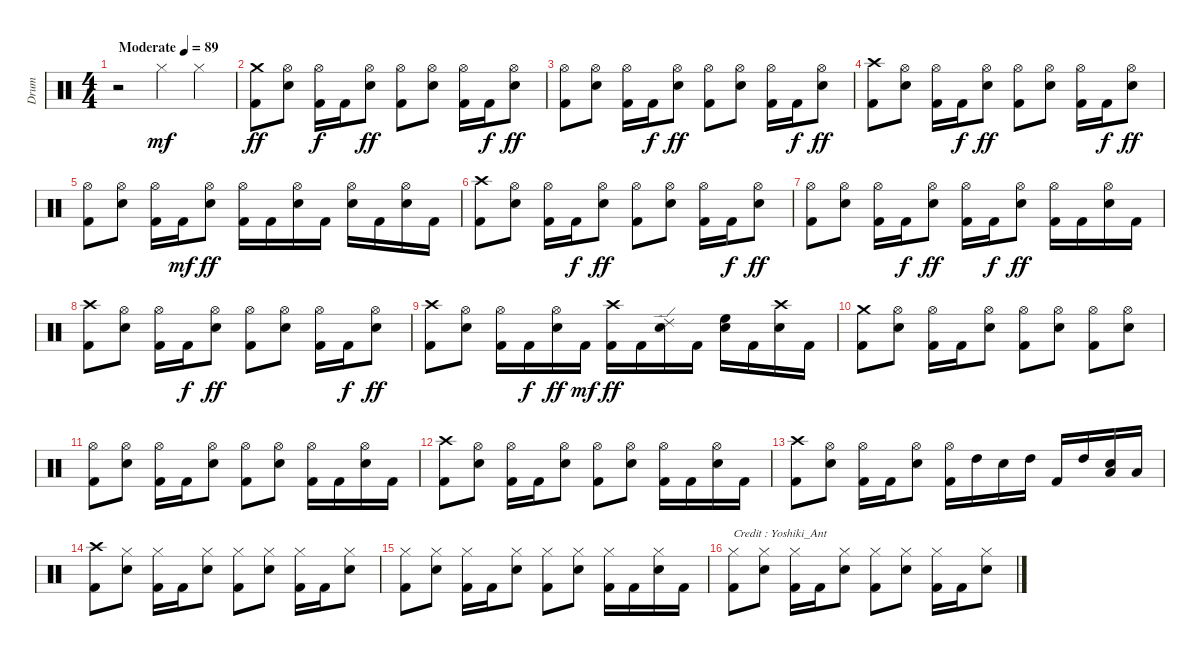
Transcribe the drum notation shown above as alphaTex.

\track ("Drum" "Drum") {instrument percussion}
\staff {score}
\articulation defaults
\ts (4 4)
\tempo (89 "Moderate")
\clef neutral
\ks c
r.2{dy mf} "Hi-Hat (closed)".4 "Hi-Hat (closed)".4 |
("Crash medium (hit)" "Kick (hit) 2").8{dy ff} ("Electric Snare (hit)" "Hi-Hat (open)").8 ("Kick (hit) 2" "Hi-Hat (open)").16{dy f} "Kick (hit) 2".16 ("Electric Snare (hit)" "Hi-Hat (open)").8{dy ff} ("Kick (hit) 2" "Hi-Hat (open)").8 ("Electric Snare (hit)" "Hi-Hat (open)").8 ("Kick (hit) 2" "Hi-Hat (open)").16 "Kick (hit) 2".16{dy f} ("Hi-Hat (open)" "Electric Snare (hit)").8{dy ff} |
("Kick (hit) 2" "Hi-Hat (open)").8 ("Electric Snare (hit)" "Hi-Hat (open)").8 ("Kick (hit) 2" "Hi-Hat (open)").16 "Kick (hit) 2".16{dy f} ("Hi-Hat (open)" "Electric Snare (hit)").8{dy ff} ("Kick (hit) 2" "Hi-Hat (open)").8 ("Electric Snare (hit)" "Hi-Hat (open)").8 ("Kick (hit) 2" "Hi-Hat (open)").16 "Kick (hit) 2".16{dy f} ("Hi-Hat (open)" "Electric Snare (hit)").8{dy ff} |
("Kick (hit) 2" "Crash high (hit)").8 ("Hi-Hat (open)" "Electric Snare (hit)").8 ("Kick (hit) 2" "Hi-Hat (open)").16 "Kick (hit) 2".16{dy f} ("Hi-Hat (open)" "Electric Snare (hit)").8{dy ff} ("Kick (hit) 2" "Hi-Hat (open)").8 ("Hi-Hat (open)" "Electric Snare (hit)").8 ("Kick (hit) 2" "Hi-Hat (open)").16 "Kick (hit) 2".16{dy f} ("Hi-Hat (open)" "Electric Snare (hit)").8{dy ff} |
("Kick (hit) 2" "Hi-Hat (open)").8 ("Electric Snare (hit)" "Hi-Hat (open)").8 ("Kick (hit) 2" "Hi-Hat (open)").16 "Kick (hit) 2".16{dy mf} ("Hi-Hat (open)" "Electric Snare (hit)").8{dy ff} ("Kick (hit) 2" "Hi-Hat (open)").16 "Kick (hit) 2".16 ("Electric Snare (hit)" "Hi-Hat (open)").16 "Kick (hit) 2".16 ("Hi-Hat (open)" "Electric Snare (hit)").16 "Kick (hit) 2".16 ("Electric Snare (hit)" "Hi-Hat (open)").16 "Kick (hit) 2".16 |
("Crash high (hit)" "Kick (hit) 2").8 ("Electric Snare (hit)" "Hi-Hat (open)").8 ("Kick (hit) 2" "Hi-Hat (open)").16 "Kick (hit) 2".16{dy f} ("Electric Snare (hit)" "Hi-Hat (open)").8{dy ff} ("Kick (hit) 2" "Hi-Hat (open)").8 ("Electric Snare (hit)" "Hi-Hat (open)").8 ("Kick (hit) 2" "Hi-Hat (open)").16 "Kick (hit) 2".16{dy f} ("Hi-Hat (open)" "Electric Snare (hit)").8{dy ff} |
("Kick (hit) 2" "Hi-Hat (open)").8 ("Electric Snare (hit)" "Hi-Hat (open)").8 ("Kick (hit) 2" "Hi-Hat (open)").16 "Kick (hit) 2".16{dy f} ("Hi-Hat (open)" "Electric Snare (hit)").8{dy ff} ("Kick (hit) 2" "Hi-Hat (open)").16 "Kick (hit) 2".16{dy f} ("Hi-Hat (open)" "Electric Snare (hit)").8{dy ff} ("Kick (hit) 2" "Hi-Hat (open)").16 "Kick (hit) 2".16 ("Electric Snare (hit)" "Hi-Hat (open)").16 "Kick (hit) 2".16 |
("Crash high (hit)" "Kick (hit) 2").8 ("Electric Snare (hit)" "Hi-Hat (open)").8 ("Kick (hit) 2" "Hi-Hat (open)").16 "Kick (hit) 2".16{dy f} ("Hi-Hat (open)" "Electric Snare (hit)").8{dy ff} ("Kick (hit) 2" "Hi-Hat (open)").8 ("Electric Snare (hit)" "Hi-Hat (open)").8 ("Kick (hit) 2" "Hi-Hat (open)").16 "Kick (hit) 2".16{dy f} ("Hi-Hat (open)" "Electric Snare (hit)").8{dy ff} |
("Crash high (hit)" "Kick (hit) 2").8 ("Hi-Hat (open)" "Electric Snare (hit)").8 ("Kick (hit) 2" "Hi-Hat (open)").16 "Kick (hit) 2".16{dy f} ("Hi-Hat (open)" "Electric Snare (hit)").16{dy ff} "Kick (hit) 2".16{dy mf} ("Kick (hit) 2" "Crash high (hit)").16{dy ff} "Kick (hit) 2".16 ("Ride (edge) 2" "Electric Snare (hit)").16 "Kick (hit) 2".16 ("Electric Snare (hit)" "High Floor Tom (hit)").16 "Kick (hit) 2".16 ("Crash high (hit)" "Electric Snare (hit)").16 "Kick (hit) 2".16 |
("Crash medium (hit)" "Kick (hit) 2").8 ("Hi-Hat (open)" "Electric Snare (hit)").8 ("Kick (hit) 2" "Hi-Hat (open)").16 "Kick (hit) 2".16 ("Electric Snare (hit)" "Hi-Hat (open)").8 ("Kick (hit) 2" "Hi-Hat (open)").8 ("Hi-Hat (open)" "Electric Snare (hit)").8 ("Kick (hit) 2" "Hi-Hat (open)").8 ("Hi-Hat (open)" "Electric Snare (hit)").8 |
("Kick (hit) 2" "Hi-Hat (open)").8 ("Electric Snare (hit)" "Hi-Hat (open)").8 ("Kick (hit) 2" "Hi-Hat (open)").16 "Kick (hit) 2".16 ("Hi-Hat (open)" "Electric Snare (hit)").8 ("Kick (hit) 2" "Hi-Hat (open)").8 ("Electric Snare (hit)" "Hi-Hat (open)").8 ("Kick (hit) 2" "Hi-Hat (open)").16 "Kick (hit) 2".16 ("Hi-Hat (open)" "Electric Snare (hit)").16 "Kick (hit) 2".16 |
("Kick (hit) 2" "Crash high (hit)").8 ("Electric Snare (hit)" "Hi-Hat (open)").8 ("Kick (hit) 2" "Hi-Hat (open)").16 "Kick (hit) 2".16 ("Electric Snare (hit)" "Hi-Hat (open)").8 ("Kick (hit) 2" "Hi-Hat (open)").8 ("Electric Snare (hit)" "Hi-Hat (open)").8 ("Kick (hit) 2" "Hi-Hat (open)").16 "Kick (hit) 2".16 ("Electric Snare (hit)" "Hi-Hat (open)").16 "Kick (hit) 2".16 |
("Kick (hit) 2" "Crash high (hit)").8 ("Electric Snare (hit)" "Hi-Hat (open)").8 ("Kick (hit) 2" "Hi-Hat (open)").16 "Kick (hit) 2".16 ("Electric Snare (hit)" "Hi-Hat (open)").8 ("Kick (hit) 2" "Hi-Hat (open)").16 "High Tom (hit)".16 "Electric Snare (hit)".16 "High Tom (hit)".16 "Kick (hit) 2".16 "High Tom (hit)".16 ("Electric Snare (hit)" "Low Tom (hit)").16 "Low Floor Tom (hit)".16 |
("Kick (hit) 2" "Crash high (hit)").8 ("Electric Snare (hit)" "Hi-Hat (closed)").8 ("Kick (hit) 2" "Hi-Hat (closed)").16 "Kick (hit) 2".16 ("Hi-Hat (closed)" "Electric Snare (hit)").8 ("Kick (hit) 2" "Hi-Hat (closed)").8 ("Electric Snare (hit)" "Hi-Hat (closed)").8 ("Kick (hit) 2" "Hi-Hat (closed)").16 "Kick (hit) 2".16 ("Electric Snare (hit)" "Hi-Hat (closed)").8 |
("Kick (hit) 2" "Hi-Hat (closed)").8 ("Electric Snare (hit)" "Hi-Hat (closed)").8 ("Kick (hit) 2" "Hi-Hat (closed)").16 "Kick (hit) 2".16 ("Hi-Hat (closed)" "Electric Snare (hit)").8 ("Kick (hit) 2" "Hi-Hat (closed)").8 ("Electric Snare (hit)" "Hi-Hat (closed)").8 ("Kick (hit) 2" "Hi-Hat (closed)").16 "Kick (hit) 2".16 ("Electric Snare (hit)" "Hi-Hat (closed)").16 "Kick (hit) 2".16 |
("Kick (hit) 2" "Hi-Hat (closed)").8{txt "Credit : Yoshiki_Ant"} ("Electric Snare (hit)" "Hi-Hat (closed)").8 ("Kick (hit) 2" "Hi-Hat (closed)").16 "Kick (hit) 2".16 ("Hi-Hat (closed)" "Electric Snare (hit)").8 ("Kick (hit) 2" "Hi-Hat (closed)").8 ("Electric Snare (hit)" "Hi-Hat (closed)").8 ("Kick (hit) 2" "Hi-Hat (closed)").16 "Kick (hit) 2".16 ("Hi-Hat (closed)" "Electric Snare (hit)").8
